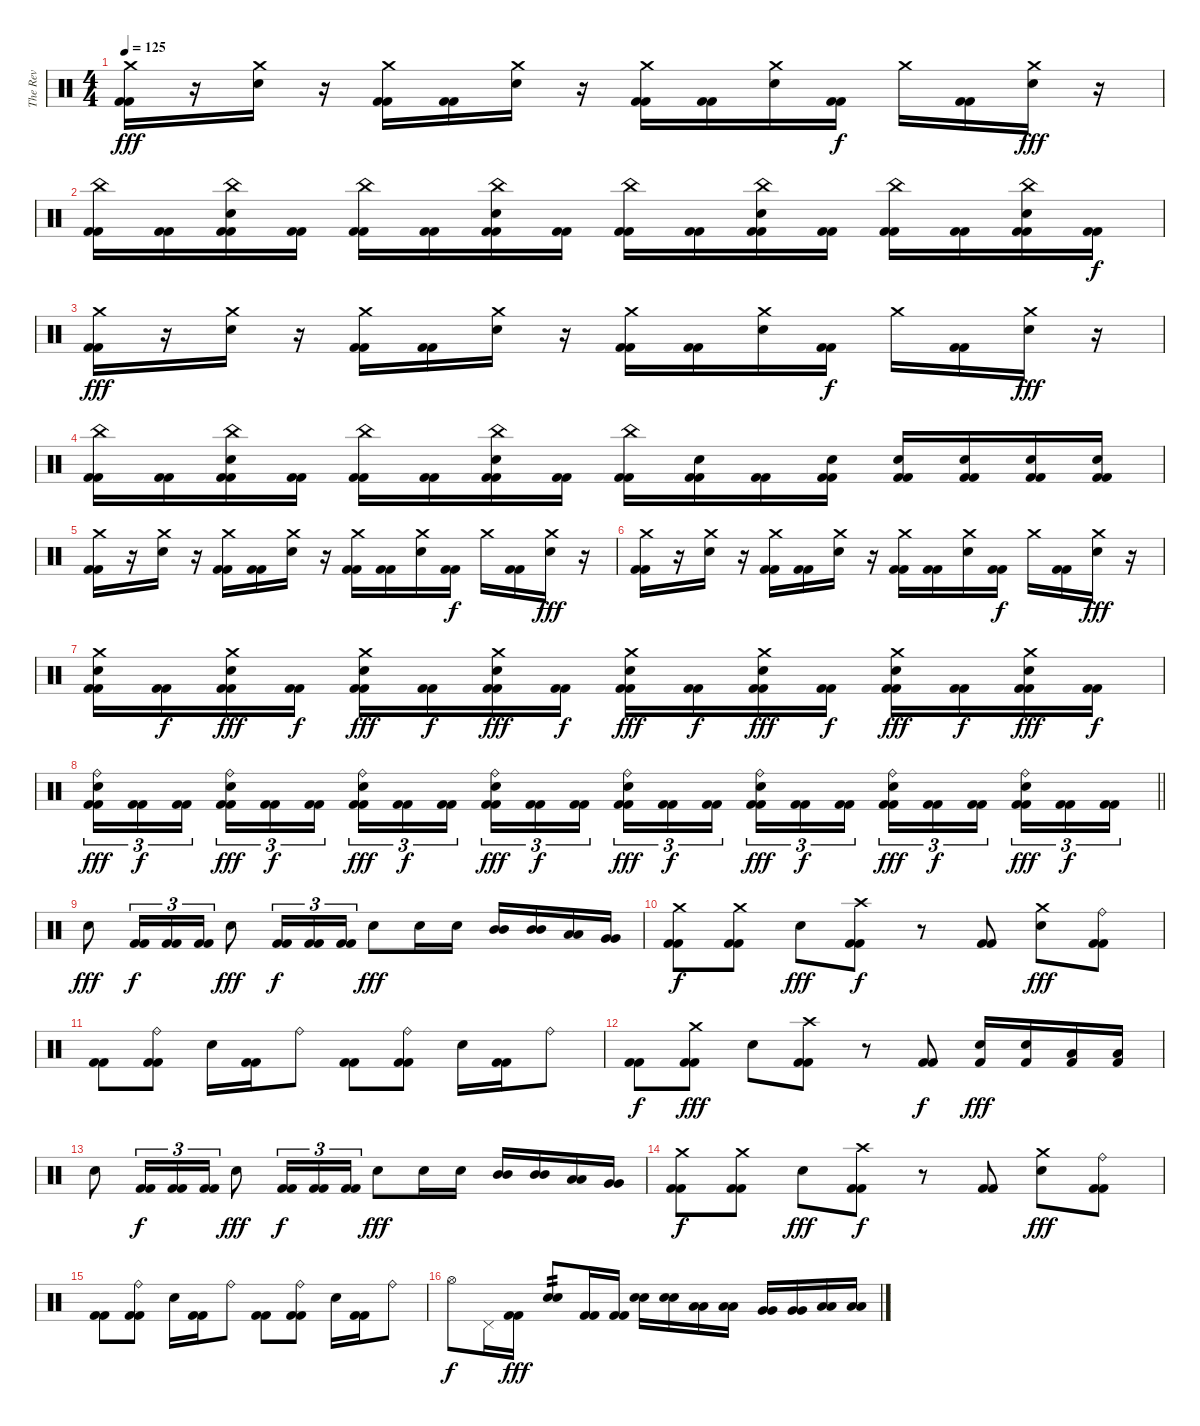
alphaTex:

\track ("The Rev" "The Rev") {instrument percussion}
\staff {score}
\articulation defaults
\ts (4 4)
\tempo 125
\clef neutral
\ks c
("Crash medium (hit)" "Kick (hit) 2" "Kick (hit) 2").16{dy fff} r.16 ("Crash medium (hit)" "Electric Snare (hit)").16 r.16 ("Crash medium (hit)" "Kick (hit) 2" "Kick (hit) 2").16 ("Kick (hit) 2" "Kick (hit) 2").16 ("Crash medium (hit)" "Electric Snare (hit)").16 r.16 ("Crash medium (hit)" "Kick (hit) 2" "Kick (hit) 2").16 ("Kick (hit) 2" "Kick (hit) 2").16 ("Crash medium (hit)" "Electric Snare (hit)").16 ("Kick (hit) 2" "Kick (hit) 2").16{dy f} "Crash medium (hit)".16 ("Kick (hit) 2" "Kick (hit) 2").16 ("Crash medium (hit)" "Electric Snare (hit)").16{dy fff} r.16 |
("China (hit)" "Kick (hit) 2" "Kick (hit) 2").16 ("Kick (hit) 2" "Kick (hit) 2").16 ("China (hit)" "Electric Snare (hit)" "Kick (hit) 2" "Kick (hit) 2").16 ("Kick (hit) 2" "Kick (hit) 2").16 ("China (hit)" "Kick (hit) 2" "Kick (hit) 2").16 ("Kick (hit) 2" "Kick (hit) 2").16 ("China (hit)" "Electric Snare (hit)" "Kick (hit) 2" "Kick (hit) 2").16 ("Kick (hit) 2" "Kick (hit) 2").16 ("China (hit)" "Kick (hit) 2" "Kick (hit) 2").16 ("Kick (hit) 2" "Kick (hit) 2").16 ("China (hit)" "Electric Snare (hit)" "Kick (hit) 2" "Kick (hit) 2").16 ("Kick (hit) 2" "Kick (hit) 2").16 ("China (hit)" "Kick (hit) 2" "Kick (hit) 2").16 ("Kick (hit) 2" "Kick (hit) 2").16 ("China (hit)" "Electric Snare (hit)" "Kick (hit) 2" "Kick (hit) 2").16 ("Kick (hit) 2" "Kick (hit) 2").16{dy f} |
("Crash medium (hit)" "Kick (hit) 2" "Kick (hit) 2").16{dy fff} r.16 ("Crash medium (hit)" "Electric Snare (hit)").16 r.16 ("Crash medium (hit)" "Kick (hit) 2" "Kick (hit) 2").16 ("Kick (hit) 2" "Kick (hit) 2").16 ("Crash medium (hit)" "Electric Snare (hit)").16 r.16 ("Crash medium (hit)" "Kick (hit) 2" "Kick (hit) 2").16 ("Kick (hit) 2" "Kick (hit) 2").16 ("Crash medium (hit)" "Electric Snare (hit)").16 ("Kick (hit) 2" "Kick (hit) 2").16{dy f} "Crash medium (hit)".16 ("Kick (hit) 2" "Kick (hit) 2").16 ("Crash medium (hit)" "Electric Snare (hit)").16{dy fff} r.16 |
("China (hit)" "Kick (hit) 2" "Kick (hit) 2").16 ("Kick (hit) 2" "Kick (hit) 2").16 ("China (hit)" "Electric Snare (hit)" "Kick (hit) 2" "Kick (hit) 2").16 ("Kick (hit) 2" "Kick (hit) 2").16 ("China (hit)" "Kick (hit) 2" "Kick (hit) 2").16 ("Kick (hit) 2" "Kick (hit) 2").16 ("China (hit)" "Electric Snare (hit)" "Kick (hit) 2" "Kick (hit) 2").16 ("Kick (hit) 2" "Kick (hit) 2").16 ("China (hit)" "Kick (hit) 2" "Kick (hit) 2").16 ("Electric Snare (hit)" "Kick (hit) 2" "Kick (hit) 2").16 ("Kick (hit) 2" "Kick (hit) 2").16 ("Electric Snare (hit)" "Kick (hit) 2" "Kick (hit) 2").16 ("Electric Snare (hit)" "Kick (hit) 2" "Kick (hit) 2").16 ("Electric Snare (hit)" "Kick (hit) 2" "Kick (hit) 2").16 ("Electric Snare (hit)" "Kick (hit) 2" "Kick (hit) 2").16 ("Electric Snare (hit)" "Kick (hit) 2" "Kick (hit) 2").16 |
("Crash medium (hit)" "Kick (hit) 2" "Kick (hit) 2").16 r.16 ("Crash medium (hit)" "Electric Snare (hit)").16 r.16 ("Crash medium (hit)" "Kick (hit) 2" "Kick (hit) 2").16 ("Kick (hit) 2" "Kick (hit) 2").16 ("Crash medium (hit)" "Electric Snare (hit)").16 r.16 ("Crash medium (hit)" "Kick (hit) 2" "Kick (hit) 2").16 ("Kick (hit) 2" "Kick (hit) 2").16 ("Crash medium (hit)" "Electric Snare (hit)").16 ("Kick (hit) 2" "Kick (hit) 2").16{dy f} "Crash medium (hit)".16 ("Kick (hit) 2" "Kick (hit) 2").16 ("Crash medium (hit)" "Electric Snare (hit)").16{dy fff} r.16 |
("Crash medium (hit)" "Kick (hit) 2" "Kick (hit) 2").16 r.16 ("Crash medium (hit)" "Electric Snare (hit)").16 r.16 ("Crash medium (hit)" "Kick (hit) 2" "Kick (hit) 2").16 ("Kick (hit) 2" "Kick (hit) 2").16 ("Crash medium (hit)" "Electric Snare (hit)").16 r.16 ("Crash medium (hit)" "Kick (hit) 2" "Kick (hit) 2").16 ("Kick (hit) 2" "Kick (hit) 2").16 ("Crash medium (hit)" "Electric Snare (hit)").16 ("Kick (hit) 2" "Kick (hit) 2").16{dy f} "Crash medium (hit)".16 ("Kick (hit) 2" "Kick (hit) 2").16 ("Crash medium (hit)" "Electric Snare (hit)").16{dy fff} r.16 |
("Crash medium (hit)" "Electric Snare (hit)" "Kick (hit) 2" "Kick (hit) 2").16 ("Kick (hit) 2" "Kick (hit) 2").16{dy f} ("Crash medium (hit)" "Electric Snare (hit)" "Kick (hit) 2" "Kick (hit) 2").16{dy fff} ("Kick (hit) 2" "Kick (hit) 2").16{dy f} ("Crash medium (hit)" "Electric Snare (hit)" "Kick (hit) 2" "Kick (hit) 2").16{dy fff} ("Kick (hit) 2" "Kick (hit) 2").16{dy f} ("Crash medium (hit)" "Electric Snare (hit)" "Kick (hit) 2" "Kick (hit) 2").16{dy fff} ("Kick (hit) 2" "Kick (hit) 2").16{dy f} ("Crash medium (hit)" "Electric Snare (hit)" "Kick (hit) 2" "Kick (hit) 2").16{dy fff} ("Kick (hit) 2" "Kick (hit) 2").16{dy f} ("Crash medium (hit)" "Electric Snare (hit)" "Kick (hit) 2" "Kick (hit) 2").16{dy fff} ("Kick (hit) 2" "Kick (hit) 2").16{dy f} ("Crash medium (hit)" "Electric Snare (hit)" "Kick (hit) 2" "Kick (hit) 2").16{dy fff} ("Kick (hit) 2" "Kick (hit) 2").16{dy f} ("Crash medium (hit)" "Electric Snare (hit)" "Kick (hit) 2" "Kick (hit) 2").16{dy fff} ("Kick (hit) 2" "Kick (hit) 2").16{dy f} |
\barLineRight lightlight
("Ride (bell)" "Electric Snare (hit)" "Kick (hit) 2" "Kick (hit) 2").16{tu (3 2) dy fff} ("Kick (hit) 2" "Kick (hit) 2").16{tu (3 2) dy f} ("Kick (hit) 2" "Kick (hit) 2").16{tu (3 2) beam splitsecondary} ("Ride (bell)" "Electric Snare (hit)" "Kick (hit) 2" "Kick (hit) 2").16{tu (3 2) dy fff} ("Kick (hit) 2" "Kick (hit) 2").16{tu (3 2) dy f} ("Kick (hit) 2" "Kick (hit) 2").16{tu (3 2)} ("Ride (bell)" "Electric Snare (hit)" "Kick (hit) 2" "Kick (hit) 2").16{tu (3 2) dy fff} ("Kick (hit) 2" "Kick (hit) 2").16{tu (3 2) dy f} ("Kick (hit) 2" "Kick (hit) 2").16{tu (3 2) beam splitsecondary} ("Ride (bell)" "Electric Snare (hit)" "Kick (hit) 2" "Kick (hit) 2").16{tu (3 2) dy fff} ("Kick (hit) 2" "Kick (hit) 2").16{tu (3 2) dy f} ("Kick (hit) 2" "Kick (hit) 2").16{tu (3 2)} ("Ride (bell)" "Electric Snare (hit)" "Kick (hit) 2" "Kick (hit) 2").16{tu (3 2) dy fff} ("Kick (hit) 2" "Kick (hit) 2").16{tu (3 2) dy f} ("Kick (hit) 2" "Kick (hit) 2").16{tu (3 2) beam splitsecondary} ("Ride (bell)" "Electric Snare (hit)" "Kick (hit) 2" "Kick (hit) 2").16{tu (3 2) dy fff} ("Kick (hit) 2" "Kick (hit) 2").16{tu (3 2) dy f} ("Kick (hit) 2" "Kick (hit) 2").16{tu (3 2)} ("Ride (bell)" "Electric Snare (hit)" "Kick (hit) 2" "Kick (hit) 2").16{tu (3 2) dy fff} ("Kick (hit) 2" "Kick (hit) 2").16{tu (3 2) dy f} ("Kick (hit) 2" "Kick (hit) 2").16{tu (3 2) beam splitsecondary} ("Ride (bell)" "Electric Snare (hit)" "Kick (hit) 2" "Kick (hit) 2").16{tu (3 2) dy fff} ("Kick (hit) 2" "Kick (hit) 2").16{tu (3 2) dy f} ("Kick (hit) 2" "Kick (hit) 2").16{tu (3 2)} |
"Electric Snare (hit)".8{dy fff} ("Kick (hit) 2" "Kick (hit) 2").16{tu (3 2) dy f} ("Kick (hit) 2" "Kick (hit) 2").16{tu (3 2)} ("Kick (hit) 2" "Kick (hit) 2").16{tu (3 2)} "Electric Snare (hit)".8{dy fff} ("Kick (hit) 2" "Kick (hit) 2").16{tu (3 2) dy f} ("Kick (hit) 2" "Kick (hit) 2").16{tu (3 2)} ("Kick (hit) 2" "Kick (hit) 2").16{tu (3 2)} "Electric Snare (hit)".8{dy fff} "Electric Snare (hit)".16 "Electric Snare (hit)".16 ("Mid Tom (hit)" "Mid Tom (hit)").16 ("Mid Tom (hit)" "Mid Tom (hit)").16 ("Low Tom (hit)" "Low Tom (hit)").16 ("Very Low Tom (hit)" "Very Low Tom (hit)").16 |
("Crash medium (hit)" "Kick (hit) 2" "Kick (hit) 2").8{dy f} ("Crash medium (hit)" "Kick (hit) 2" "Kick (hit) 2").8 "Electric Snare (hit)".8{dy fff} ("Crash high (hit)" "Kick (hit) 2" "Kick (hit) 2").8{dy f} r.8 ("Kick (hit) 2" "Kick (hit) 2").8 ("Crash medium (hit)" "Electric Snare (hit)").8{dy fff} ("Ride (bell)" "Kick (hit) 2" "Kick (hit) 2").8 |
("Kick (hit) 2" "Kick (hit) 2").8 ("Ride (bell)" "Kick (hit) 2" "Kick (hit) 2").8 "Electric Snare (hit)".16 ("Kick (hit) 2" "Kick (hit) 2").16 "Ride (bell)".8 ("Kick (hit) 2" "Kick (hit) 2").8 ("Ride (bell)" "Kick (hit) 2" "Kick (hit) 2").8 "Electric Snare (hit)".16 ("Kick (hit) 2" "Kick (hit) 2").16 "Ride (bell)".8 |
("Kick (hit) 2" "Kick (hit) 2").8{dy f} ("Crash medium (hit)" "Kick (hit) 2" "Kick (hit) 2").8{dy fff} "Electric Snare (hit)".8 ("Crash high (hit)" "Kick (hit) 2" "Kick (hit) 2").8 r.8 ("Kick (hit) 2" "Kick (hit) 2").8{dy f} ("Electric Snare (hit)" "Kick (hit) 2").16{dy fff} ("Electric Snare (hit)" "Kick (hit) 2").16 ("Low Tom (hit)" "Kick (hit) 2").16 ("Low Tom (hit)" "Kick (hit) 2").16 |
"Electric Snare (hit)".8 ("Kick (hit) 2" "Kick (hit) 2").16{tu (3 2) dy f} ("Kick (hit) 2" "Kick (hit) 2").16{tu (3 2)} ("Kick (hit) 2" "Kick (hit) 2").16{tu (3 2)} "Electric Snare (hit)".8{dy fff} ("Kick (hit) 2" "Kick (hit) 2").16{tu (3 2) dy f} ("Kick (hit) 2" "Kick (hit) 2").16{tu (3 2)} ("Kick (hit) 2" "Kick (hit) 2").16{tu (3 2)} "Electric Snare (hit)".8{dy fff} "Electric Snare (hit)".16 "Electric Snare (hit)".16 ("Mid Tom (hit)" "Mid Tom (hit)").16 ("Mid Tom (hit)" "Mid Tom (hit)").16 ("Low Tom (hit)" "Low Tom (hit)").16 ("Very Low Tom (hit)" "Very Low Tom (hit)").16 |
("Crash medium (hit)" "Kick (hit) 2" "Kick (hit) 2").8{dy f} ("Crash medium (hit)" "Kick (hit) 2" "Kick (hit) 2").8 "Electric Snare (hit)".8{dy fff} ("Crash high (hit)" "Kick (hit) 2" "Kick (hit) 2").8{dy f} r.8 ("Kick (hit) 2" "Kick (hit) 2").8 ("Crash medium (hit)" "Electric Snare (hit)").8{dy fff} ("Ride (bell)" "Kick (hit) 2" "Kick (hit) 2").8 |
("Kick (hit) 2" "Kick (hit) 2").8 ("Ride (bell)" "Kick (hit) 2" "Kick (hit) 2").8 "Electric Snare (hit)".16 ("Kick (hit) 2" "Kick (hit) 2").16 "Ride (bell)".8 ("Kick (hit) 2" "Kick (hit) 2").8 ("Ride (bell)" "Kick (hit) 2" "Kick (hit) 2").8 "Electric Snare (hit)".16 ("Kick (hit) 2" "Kick (hit) 2").16 "Ride (bell)".8 |
"Hi-Hat (open)".8{dy f} "Pedal Hi-Hat (hit)".16 ("Kick (hit) 2" "Kick (hit) 2").16{dy fff} ("Electric Snare (hit)" "Electric Snare (hit)").8{tp 2} ("Kick (hit) 2" "Kick (hit) 2").16 ("Kick (hit) 2" "Kick (hit) 2").16 ("Electric Snare (hit)" "Electric Snare (hit)").16 ("Electric Snare (hit)" "Electric Snare (hit)").16 ("Low Tom (hit)" "Low Tom (hit)").16 ("Low Tom (hit)" "Low Tom (hit)").16 ("Very Low Tom (hit)" "Very Low Tom (hit)").16 ("Very Low Tom (hit)" "Very Low Tom (hit)").16 ("Low Floor Tom (hit)" "Low Floor Tom (hit)").16 ("Low Floor Tom (hit)" "Low Floor Tom (hit)").16
